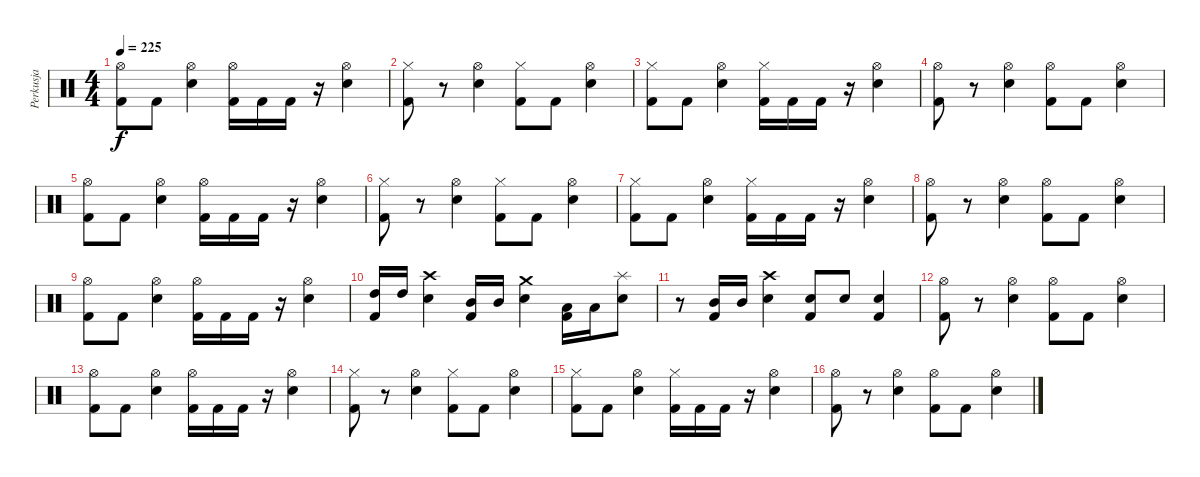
\track ("Perkusja" "Perkusja") {instrument percussion}
\staff {score}
\articulation defaults
\ts (4 4)
\tempo 225
\clef neutral
\ks c
("Hi-Hat (open)" "Kick (hit) 2").8{dy f} "Kick (hit) 2".8 ("Hi-Hat (open)" "Snare (hit) 2").4 ("Hi-Hat (open)" "Kick (hit) 2").16 "Kick (hit) 2".16 "Kick (hit) 2".16 r.16 ("Hi-Hat (open)" "Snare (hit) 2").4 |
("Hi-Hat (closed)" "Kick (hit) 2").8 r.8 ("Hi-Hat (open)" "Snare (hit) 2").4 ("Hi-Hat (closed)" "Kick (hit) 2").8 "Kick (hit) 2".8 ("Hi-Hat (open)" "Snare (hit) 2").4 |
("Hi-Hat (closed)" "Kick (hit) 2").8 "Kick (hit) 2".8 ("Hi-Hat (open)" "Snare (hit) 2").4 ("Hi-Hat (closed)" "Kick (hit) 2").16 "Kick (hit) 2".16 "Kick (hit) 2".16 r.16 ("Hi-Hat (open)" "Snare (hit) 2").4 |
("Hi-Hat (open)" "Kick (hit) 2").8 r.8 ("Hi-Hat (open)" "Snare (hit) 2").4 ("Hi-Hat (open)" "Kick (hit) 2").8 "Kick (hit) 2".8 ("Hi-Hat (open)" "Snare (hit) 2").4 |
("Hi-Hat (open)" "Kick (hit) 2").8 "Kick (hit) 2".8 ("Hi-Hat (open)" "Snare (hit) 2").4 ("Hi-Hat (open)" "Kick (hit) 2").16 "Kick (hit) 2".16 "Kick (hit) 2".16 r.16 ("Hi-Hat (open)" "Snare (hit) 2").4 |
("Hi-Hat (closed)" "Kick (hit) 2").8 r.8 ("Hi-Hat (open)" "Snare (hit) 2").4 ("Hi-Hat (closed)" "Kick (hit) 2").8 "Kick (hit) 2".8 ("Hi-Hat (open)" "Snare (hit) 2").4 |
("Hi-Hat (closed)" "Kick (hit) 2").8 "Kick (hit) 2".8 ("Hi-Hat (open)" "Snare (hit) 2").4 ("Hi-Hat (closed)" "Kick (hit) 2").16 "Kick (hit) 2".16 "Kick (hit) 2".16 r.16 ("Hi-Hat (open)" "Snare (hit) 2").4 |
("Hi-Hat (open)" "Kick (hit) 2").8 r.8 ("Hi-Hat (open)" "Snare (hit) 2").4 ("Hi-Hat (open)" "Kick (hit) 2").8 "Kick (hit) 2".8 ("Hi-Hat (open)" "Snare (hit) 2").4 |
("Hi-Hat (open)" "Kick (hit) 2").8 "Kick (hit) 2".8 ("Hi-Hat (open)" "Snare (hit) 2").4 ("Hi-Hat (open)" "Kick (hit) 2").16 "Kick (hit) 2".16 "Kick (hit) 2".16 r.16 ("Hi-Hat (open)" "Snare (hit) 2").4 |
("High Tom (hit)" "Kick (hit) 2").16 "High Tom (hit)".16 ("Crash high (hit)" "Snare (hit) 2").4 ("Mid Tom (hit)" "Kick (hit) 2").16 "Mid Tom (hit)".16 ("Crash medium (hit)" "Snare (hit) 2").4 ("Low Tom (hit)" "Kick (hit) 2").16 "Low Tom (hit)".16 ("Splash (hit)" "Snare (hit) 2").8 |
r.8 ("Mid Tom (hit)" "Kick (hit) 2").16 "Mid Tom (hit)".16 ("Crash high (hit)" "Snare (hit) 2").4 ("Snare (hit) 2" "Kick (hit) 2").8 "Snare (hit) 2".8 ("Snare (hit) 2" "Kick (hit) 2").4 |
("Hi-Hat (open)" "Kick (hit) 2").8 r.8 ("Hi-Hat (open)" "Snare (hit) 2").4 ("Hi-Hat (open)" "Kick (hit) 2").8 "Kick (hit) 2".8 ("Hi-Hat (open)" "Snare (hit) 2").4 |
("Hi-Hat (open)" "Kick (hit) 2").8 "Kick (hit) 2".8 ("Hi-Hat (open)" "Snare (hit) 2").4 ("Hi-Hat (open)" "Kick (hit) 2").16 "Kick (hit) 2".16 "Kick (hit) 2".16 r.16 ("Hi-Hat (open)" "Snare (hit) 2").4 |
("Hi-Hat (closed)" "Kick (hit) 2").8 r.8 ("Hi-Hat (open)" "Snare (hit) 2").4 ("Hi-Hat (closed)" "Kick (hit) 2").8 "Kick (hit) 2".8 ("Hi-Hat (open)" "Snare (hit) 2").4 |
("Hi-Hat (closed)" "Kick (hit) 2").8 "Kick (hit) 2".8 ("Hi-Hat (open)" "Snare (hit) 2").4 ("Hi-Hat (closed)" "Kick (hit) 2").16 "Kick (hit) 2".16 "Kick (hit) 2".16 r.16 ("Hi-Hat (open)" "Snare (hit) 2").4 |
("Hi-Hat (open)" "Kick (hit) 2").8 r.8 ("Hi-Hat (open)" "Snare (hit) 2").4 ("Hi-Hat (open)" "Kick (hit) 2").8 "Kick (hit) 2".8 ("Hi-Hat (open)" "Snare (hit) 2").4
